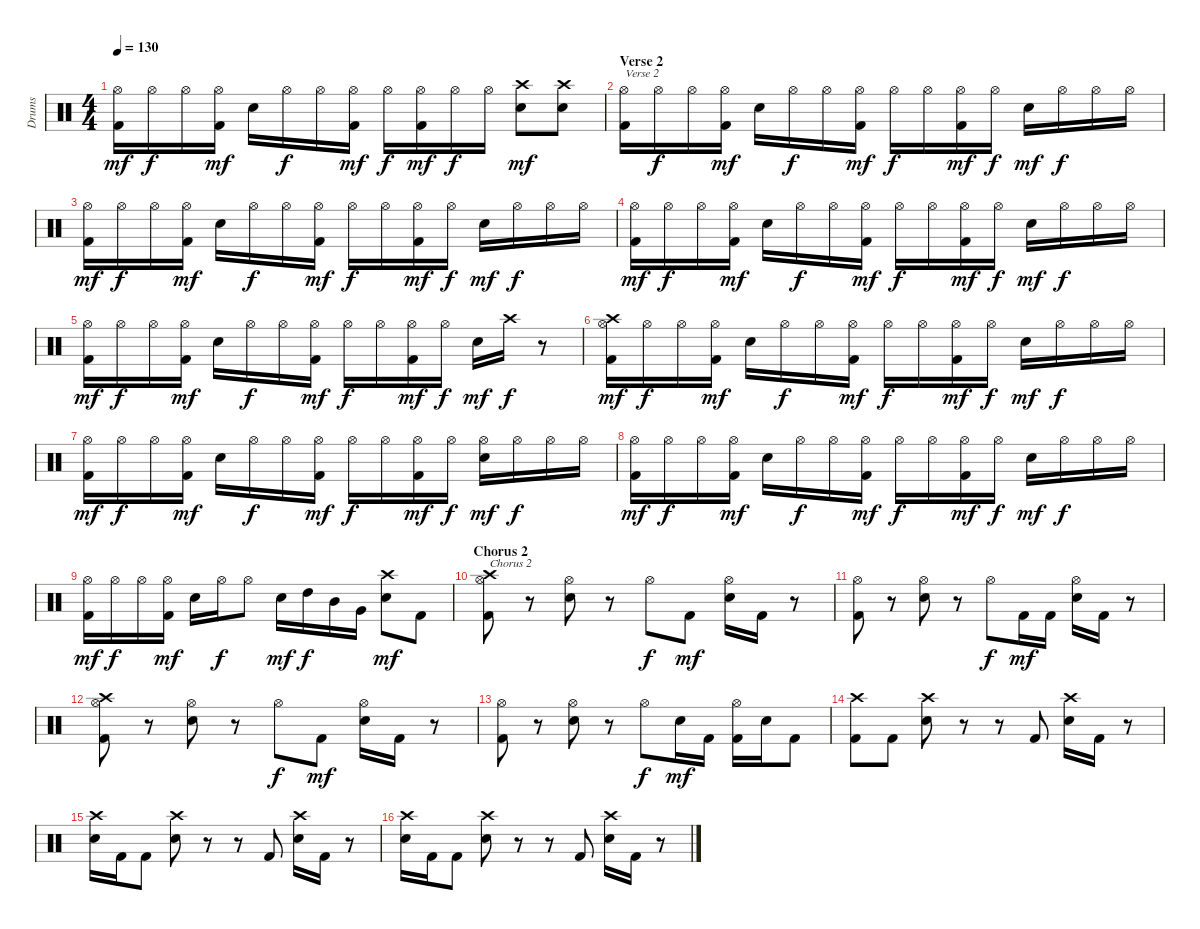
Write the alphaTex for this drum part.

\track ("Drums" "Drums") {instrument percussion}
\staff {score}
\articulation defaults
\ts (4 4)
\tempo 130
\clef neutral
\ks c
("Hi-Hat (open)" "Kick (hit) 2").16{dy mf} "Hi-Hat (open)".16{dy f} "Hi-Hat (open)".16 ("Hi-Hat (open)" "Kick (hit) 2").16{dy mf} "Electric Snare (hit)".16 "Hi-Hat (open)".16{dy f} "Hi-Hat (open)".16 ("Hi-Hat (open)" "Kick (hit) 2").16{dy mf} "Hi-Hat (open)".16{dy f} ("Hi-Hat (open)" "Kick (hit) 2").16{dy mf} "Hi-Hat (open)".16{dy f} "Hi-Hat (open)".16 ("Crash high (hit)" "Electric Snare (hit)").8{dy mf} ("Crash high (hit)" "Electric Snare (hit)").8 |
\section ("" "Verse 2")
("Hi-Hat (open)" "Kick (hit) 2").16{txt "Verse 2"} "Hi-Hat (open)".16{dy f} "Hi-Hat (open)".16 ("Hi-Hat (open)" "Kick (hit) 2").16{dy mf} "Electric Snare (hit)".16 "Hi-Hat (open)".16{dy f} "Hi-Hat (open)".16 ("Hi-Hat (open)" "Kick (hit) 2").16{dy mf} "Hi-Hat (open)".16{dy f} "Hi-Hat (open)".16 ("Hi-Hat (open)" "Kick (hit) 2").16{dy mf} "Hi-Hat (open)".16{dy f} "Electric Snare (hit)".16{dy mf} "Hi-Hat (open)".16{dy f} "Hi-Hat (open)".16 "Hi-Hat (open)".16 |
("Hi-Hat (open)" "Kick (hit) 2").16{dy mf} "Hi-Hat (open)".16{dy f} "Hi-Hat (open)".16 ("Hi-Hat (open)" "Kick (hit) 2").16{dy mf} "Electric Snare (hit)".16 "Hi-Hat (open)".16{dy f} "Hi-Hat (open)".16 ("Hi-Hat (open)" "Kick (hit) 2").16{dy mf} "Hi-Hat (open)".16{dy f} "Hi-Hat (open)".16 ("Hi-Hat (open)" "Kick (hit) 2").16{dy mf} "Hi-Hat (open)".16{dy f} "Electric Snare (hit)".16{dy mf} "Hi-Hat (open)".16{dy f} "Hi-Hat (open)".16 "Hi-Hat (open)".16 |
("Hi-Hat (open)" "Kick (hit) 2").16{dy mf} "Hi-Hat (open)".16{dy f} "Hi-Hat (open)".16 ("Hi-Hat (open)" "Kick (hit) 2").16{dy mf} "Electric Snare (hit)".16 "Hi-Hat (open)".16{dy f} "Hi-Hat (open)".16 ("Hi-Hat (open)" "Kick (hit) 2").16{dy mf} "Hi-Hat (open)".16{dy f} "Hi-Hat (open)".16 ("Hi-Hat (open)" "Kick (hit) 2").16{dy mf} "Hi-Hat (open)".16{dy f} "Electric Snare (hit)".16{dy mf} "Hi-Hat (open)".16{dy f} "Hi-Hat (open)".16 "Hi-Hat (open)".16 |
("Hi-Hat (open)" "Kick (hit) 2").16{dy mf} "Hi-Hat (open)".16{dy f} "Hi-Hat (open)".16 ("Hi-Hat (open)" "Kick (hit) 2").16{dy mf} "Electric Snare (hit)".16 "Hi-Hat (open)".16{dy f} "Hi-Hat (open)".16 ("Hi-Hat (open)" "Kick (hit) 2").16{dy mf} "Hi-Hat (open)".16{dy f} "Hi-Hat (open)".16 ("Hi-Hat (open)" "Kick (hit) 2").16{dy mf} "Hi-Hat (open)".16{dy f} "Electric Snare (hit)".16{dy mf} "Crash high (hit)".16{dy f} r.8 |
("Crash high (hit)" "Hi-Hat (open)" "Kick (hit) 2").16{dy mf} "Hi-Hat (open)".16{dy f} "Hi-Hat (open)".16 ("Hi-Hat (open)" "Kick (hit) 2").16{dy mf} "Electric Snare (hit)".16 "Hi-Hat (open)".16{dy f} "Hi-Hat (open)".16 ("Hi-Hat (open)" "Kick (hit) 2").16{dy mf} "Hi-Hat (open)".16{dy f} "Hi-Hat (open)".16 ("Hi-Hat (open)" "Kick (hit) 2").16{dy mf} "Hi-Hat (open)".16{dy f} "Electric Snare (hit)".16{dy mf} "Hi-Hat (open)".16{dy f} "Hi-Hat (open)".16 "Hi-Hat (open)".16 |
("Hi-Hat (open)" "Kick (hit) 2").16{dy mf} "Hi-Hat (open)".16{dy f} "Hi-Hat (open)".16 ("Hi-Hat (open)" "Kick (hit) 2").16{dy mf} "Electric Snare (hit)".16 "Hi-Hat (open)".16{dy f} "Hi-Hat (open)".16 ("Hi-Hat (open)" "Kick (hit) 2").16{dy mf} "Hi-Hat (open)".16{dy f} "Hi-Hat (open)".16 ("Hi-Hat (open)" "Kick (hit) 2").16{dy mf} "Hi-Hat (open)".16{dy f} ("Hi-Hat (open)" "Electric Snare (hit)").16{dy mf} "Hi-Hat (open)".16{dy f} "Hi-Hat (open)".16 "Hi-Hat (open)".16 |
("Hi-Hat (open)" "Kick (hit) 2").16{dy mf} "Hi-Hat (open)".16{dy f} "Hi-Hat (open)".16 ("Hi-Hat (open)" "Kick (hit) 2").16{dy mf} "Electric Snare (hit)".16 "Hi-Hat (open)".16{dy f} "Hi-Hat (open)".16 ("Hi-Hat (open)" "Kick (hit) 2").16{dy mf} "Hi-Hat (open)".16{dy f} "Hi-Hat (open)".16 ("Hi-Hat (open)" "Kick (hit) 2").16{dy mf} "Hi-Hat (open)".16{dy f} "Electric Snare (hit)".16{dy mf} "Hi-Hat (open)".16{dy f} "Hi-Hat (open)".16 "Hi-Hat (open)".16 |
("Hi-Hat (open)" "Kick (hit) 2").16{dy mf} "Hi-Hat (open)".16{dy f} "Hi-Hat (open)".16 ("Hi-Hat (open)" "Kick (hit) 2").16{dy mf} "Electric Snare (hit)".16 "Hi-Hat (open)".16{dy f} "Hi-Hat (open)".8 "Electric Snare (hit)".16{dy mf} "High Tom (hit)".16{dy f} "Mid Tom (hit)".16 "Very Low Tom (hit)".16 ("Crash high (hit)" "Electric Snare (hit)").8{dy mf} "Kick (hit) 2".8 |
\section ("" "Chorus 2")
("Crash high (hit)" "Hi-Hat (open)" "Kick (hit) 2").8{txt "Chorus 2"} r.8 ("Hi-Hat (open)" "Electric Snare (hit)").8 r.8 "Hi-Hat (open)".8{dy f} "Kick (hit) 2".8{dy mf} ("Hi-Hat (open)" "Electric Snare (hit)").16 "Kick (hit) 2".16 r.8 |
("Hi-Hat (open)" "Kick (hit) 2").8 r.8 ("Hi-Hat (open)" "Electric Snare (hit)").8 r.8 "Hi-Hat (open)".8{dy f} "Kick (hit) 2".16{dy mf} "Kick (hit) 2".16 ("Hi-Hat (open)" "Electric Snare (hit)").16 "Kick (hit) 2".16 r.8 |
("Crash high (hit)" "Hi-Hat (open)" "Kick (hit) 2").8 r.8 ("Hi-Hat (open)" "Electric Snare (hit)").8 r.8 "Hi-Hat (open)".8{dy f} "Kick (hit) 2".8{dy mf} ("Hi-Hat (open)" "Electric Snare (hit)").16 "Kick (hit) 2".16 r.8 |
("Hi-Hat (open)" "Kick (hit) 2").8 r.8 ("Hi-Hat (open)" "Electric Snare (hit)").8 r.8 "Hi-Hat (open)".8{dy f} "Electric Snare (hit)".16{dy mf} "Kick (hit) 2".16 ("Hi-Hat (open)" "Kick (hit) 2").16 "Electric Snare (hit)".16 "Kick (hit) 2".8 |
("Crash high (hit)" "Kick (hit) 2").8 "Kick (hit) 2".8 ("Crash high (hit)" "Electric Snare (hit)").8 r.8 r.8 "Kick (hit) 2".8 ("Crash high (hit)" "Electric Snare (hit)").16 "Kick (hit) 2".16 r.8 |
("Crash high (hit)" "Electric Snare (hit)").16 "Kick (hit) 2".16 "Kick (hit) 2".8 ("Crash high (hit)" "Electric Snare (hit)").8 r.8 r.8 "Kick (hit) 2".8 ("Crash high (hit)" "Electric Snare (hit)").16 "Kick (hit) 2".16 r.8 |
("Crash high (hit)" "Electric Snare (hit)").16 "Kick (hit) 2".16 "Kick (hit) 2".8 ("Crash high (hit)" "Electric Snare (hit)").8 r.8 r.8 "Kick (hit) 2".8 ("Crash high (hit)" "Electric Snare (hit)").16 "Kick (hit) 2".16 r.8
